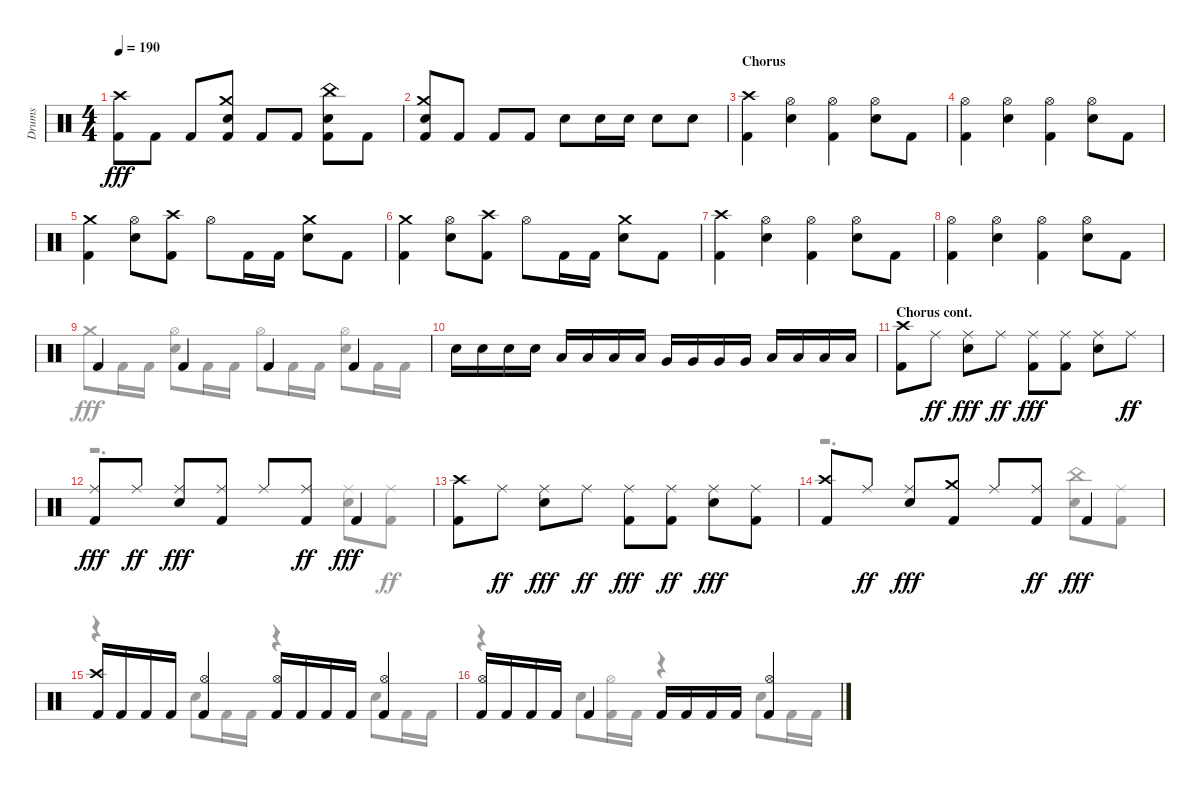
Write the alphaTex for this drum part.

\track ("Drums" "Drums") {instrument percussion}
\staff {score}
\articulation defaults
\voice
\ts (4 4)
\tempo 190
\clef neutral
\ks aminor
("Crash high (hit)" "Kick (hit) 2").8{dy fff} "Kick (hit) 2".8 "Kick (hit) 2".8 ("Crash medium (hit)" "Snare (hit) 2" "Kick (hit) 2").8 "Kick (hit) 2".8 "Kick (hit) 2".8 ("Snare (hit) 2" "Kick (hit) 2" "China (hit)").8 "Kick (hit) 2".8 |
("Crash medium (hit)" "Snare (hit) 2" "Kick (hit) 2").8 "Kick (hit) 2".8 "Kick (hit) 2".8 "Kick (hit) 2".8 "Snare (hit) 2".8 "Snare (hit) 2".16 "Snare (hit) 2".16 "Snare (hit) 2".8 "Snare (hit) 2".8 |
\section ("" "Chorus")
("Kick (hit) 2" "Crash high (hit)").4 ("Snare (hit) 2" "Hi-Hat (open)").4 ("Kick (hit) 2" "Hi-Hat (open)").4 ("Hi-Hat (open)" "Snare (hit) 2").8 "Kick (hit) 2".8 |
("Hi-Hat (open)" "Kick (hit) 2").4 ("Snare (hit) 2" "Hi-Hat (open)").4 ("Kick (hit) 2" "Hi-Hat (open)").4 ("Hi-Hat (open)" "Snare (hit) 2").8 "Kick (hit) 2".8 |
("Kick (hit) 2" "Crash medium (hit)").4 ("Snare (hit) 2" "Hi-Hat (open)").8 ("Kick (hit) 2" "Crash high (hit)").8 "Hi-Hat (open)".8 "Kick (hit) 2".16 "Kick (hit) 2".16 ("Crash medium (hit)" "Snare (hit) 2").8 "Kick (hit) 2".8 |
("Crash medium (hit)" "Kick (hit) 2").4 ("Snare (hit) 2" "Hi-Hat (open)").8 ("Crash high (hit)" "Kick (hit) 2").8 "Hi-Hat (open)".8 "Kick (hit) 2".16 "Kick (hit) 2".16 ("Snare (hit) 2" "Crash medium (hit)").8 "Kick (hit) 2".8 |
("Kick (hit) 2" "Crash high (hit)").4 ("Snare (hit) 2" "Hi-Hat (open)").4 ("Hi-Hat (open)" "Kick (hit) 2").4 ("Hi-Hat (open)" "Snare (hit) 2").8 "Kick (hit) 2".8 |
("Kick (hit) 2" "Hi-Hat (open)").4 ("Hi-Hat (open)" "Snare (hit) 2").4 ("Hi-Hat (open)" "Kick (hit) 2").4 ("Hi-Hat (open)" "Snare (hit) 2").8 "Kick (hit) 2".8 |
"Kick (hit) 2".4 "Kick (hit) 2".4 "Kick (hit) 2".4 "Kick (hit) 2".4 |
"Snare (hit) 2".16 "Snare (hit) 2".16 "Snare (hit) 2".16 "Snare (hit) 2".16 "Low Tom (hit)".16 "Low Tom (hit)".16 "Low Tom (hit)".16 "Low Tom (hit)".16 "Very Low Tom (hit)".16 "Very Low Tom (hit)".16 "Very Low Tom (hit)".16 "Very Low Tom (hit)".16 "Low Floor Tom (hit)".16 "Low Floor Tom (hit)".16 "Low Floor Tom (hit)".16 "Low Floor Tom (hit)".16 |
\section ("" "Chorus cont.")
("Kick (hit) 2" "Crash high (hit)").8 "Ride (middle)".8{dy ff} ("Snare (hit) 2" "Ride (middle)").8{dy fff} "Ride (middle)".8{dy ff} ("Kick (hit) 2" "Ride (middle)").8{dy fff} ("Kick (hit) 2" "Ride (middle)").8 ("Snare (hit) 2" "Ride (middle)").8 "Ride (middle)".8{dy ff} |
("Kick (hit) 2" "Ride (middle)").8{dy fff} "Ride (middle)".8{dy ff} ("Ride (middle)" "Snare (hit) 2").8{dy fff} ("Kick (hit) 2" "Ride (middle)").8 "Ride (middle)".8 ("Ride (middle)" "Kick (hit) 2").8{dy ff} "Kick (hit) 2".4{dy fff} |
("Kick (hit) 2" "Crash high (hit)").8 "Ride (middle)".8{dy ff} ("Snare (hit) 2" "Ride (middle)").8{dy fff} "Ride (middle)".8{dy ff} ("Kick (hit) 2" "Ride (middle)").8{dy fff} ("Kick (hit) 2" "Ride (middle)").8{dy ff} ("Snare (hit) 2" "Ride (middle)").8{dy fff} ("Ride (middle)" "Kick (hit) 2").8 |
("Crash high (hit)" "Kick (hit) 2").8 "Ride (middle)".8{dy ff} ("Ride (middle)" "Snare (hit) 2").8{dy fff} ("Crash medium (hit)" "Kick (hit) 2").8 "Ride (middle)".8 ("Kick (hit) 2" "Ride (middle)").8{dy ff} "Kick (hit) 2".4{dy fff} |
("Crash high (hit)" "Kick (hit) 2").16 "Kick (hit) 2".16 "Kick (hit) 2".16 "Kick (hit) 2".16 ("Kick (hit) 2" "Hi-Hat (open)").4 ("Kick (hit) 2" "Hi-Hat (open)").16 "Kick (hit) 2".16 "Kick (hit) 2".16 "Kick (hit) 2".16 ("Kick (hit) 2" "Hi-Hat (open)").4 |
("Hi-Hat (open)" "Kick (hit) 2").16 "Kick (hit) 2".16 "Kick (hit) 2".16 "Kick (hit) 2".16 "Kick (hit) 2".4 "Kick (hit) 2".16 "Kick (hit) 2".16 "Kick (hit) 2".16 "Kick (hit) 2".16 ("Kick (hit) 2" "Hi-Hat (open)").4
\voice
\clef neutral
\ottava regular
\simile none
\ks aminor
|
|
|
|
|
|
|
|
"Crash medium (hit)".8 "Kick (hit) 2".16 "Kick (hit) 2".16 ("Hi-Hat (open)" "Snare (hit) 2").8 "Kick (hit) 2".16 "Kick (hit) 2".16 "Hi-Hat (open)".8 "Kick (hit) 2".16 "Kick (hit) 2".16 ("Snare (hit) 2" "Hi-Hat (open)").8 "Kick (hit) 2".16 "Kick (hit) 2".16 |
|
|
r.2{d} ("Ride (middle)" "Snare (hit) 2").8 ("Kick (hit) 2" "Ride (middle)").8{dy ff} |
|
r.2{d} ("China (hit)" "Snare (hit) 2").8{dy fff} ("Ride (middle)" "Kick (hit) 2").8 |
r.4 "Snare (hit) 2".8 "Kick (hit) 2".16 "Kick (hit) 2".16 r.4 "Snare (hit) 2".8 "Kick (hit) 2".16 "Kick (hit) 2".16 |
r.4 "Snare (hit) 2".8 ("Kick (hit) 2" "Hi-Hat (open)").16 "Kick (hit) 2".16 r.4 "Snare (hit) 2".8 "Kick (hit) 2".16 "Kick (hit) 2".16
